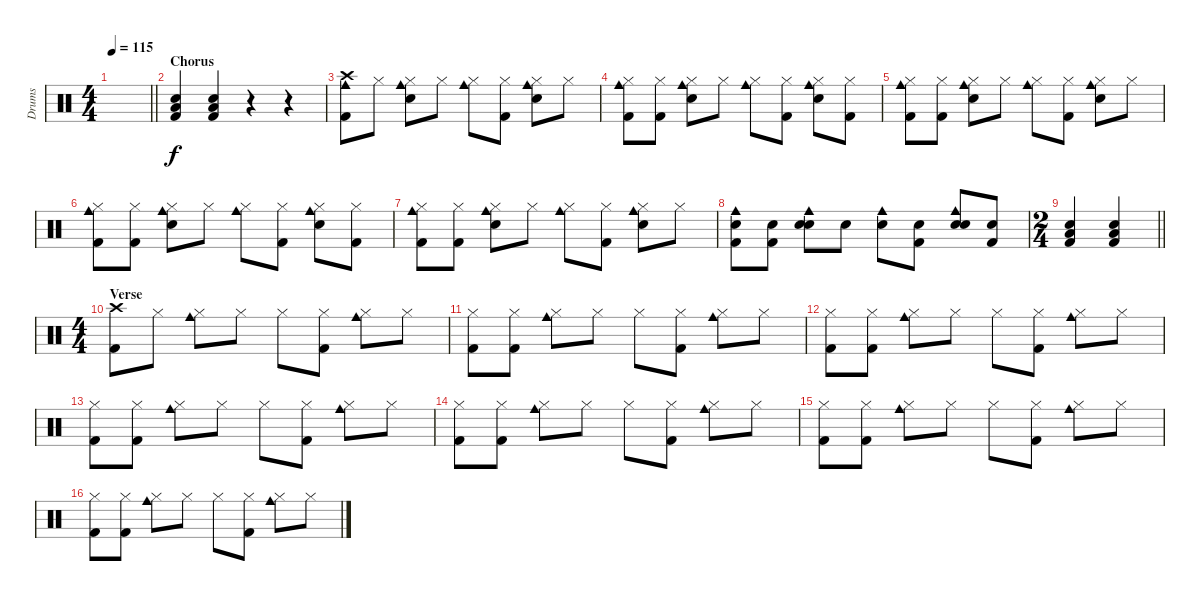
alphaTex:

\track ("Drums" "Drums") {instrument percussion}
\staff {score}
\articulation defaults
\ts (4 4)
\tempo 115
\clef neutral
\barLineRight lightlight
\ks c
|
\section ("" "Chorus")
("Hand Clap (hit)" "Low Floor Tom (hit)" "Kick (hit) 2").4 ("Hand Clap (hit)" "Low Floor Tom (hit)" "Kick (hit) 2").4 r.4 r.4 |
("Crash high (hit)" "Cowbell medium (hit)" "Kick (hit) 2").8 "Hi-Hat (closed)".8 ("Hi-Hat (closed)" "Cowbell medium (hit)" "Snare (hit) 2").8 "Hi-Hat (closed)".8 ("Hi-Hat (closed)" "Cowbell medium (hit)").8 ("Hi-Hat (closed)" "Kick (hit) 2").8 ("Hi-Hat (closed)" "Cowbell medium (hit)" "Snare (hit) 2").8 "Hi-Hat (closed)".8 |
("Hi-Hat (closed)" "Cowbell medium (hit)" "Kick (hit) 2").8 ("Hi-Hat (closed)" "Kick (hit) 2").8 ("Hi-Hat (closed)" "Cowbell medium (hit)" "Snare (hit) 2").8 "Hi-Hat (closed)".8 ("Hi-Hat (closed)" "Cowbell medium (hit)").8 ("Hi-Hat (closed)" "Kick (hit) 2").8 ("Hi-Hat (closed)" "Cowbell medium (hit)" "Snare (hit) 2").8 ("Hi-Hat (closed)" "Kick (hit) 2").8 |
("Hi-Hat (closed)" "Cowbell medium (hit)" "Kick (hit) 2").8 ("Hi-Hat (closed)" "Kick (hit) 2").8 ("Hi-Hat (closed)" "Cowbell medium (hit)" "Snare (hit) 2").8 "Hi-Hat (closed)".8 ("Hi-Hat (closed)" "Cowbell medium (hit)").8 ("Hi-Hat (closed)" "Kick (hit) 2").8 ("Hi-Hat (closed)" "Cowbell medium (hit)" "Snare (hit) 2").8 "Hi-Hat (closed)".8 |
("Hi-Hat (closed)" "Cowbell medium (hit)" "Kick (hit) 2").8 ("Hi-Hat (closed)" "Kick (hit) 2").8 ("Hi-Hat (closed)" "Cowbell medium (hit)" "Snare (hit) 2").8 "Hi-Hat (closed)".8 ("Hi-Hat (closed)" "Cowbell medium (hit)").8 ("Hi-Hat (closed)" "Kick (hit) 2").8 ("Hi-Hat (closed)" "Cowbell medium (hit)" "Snare (hit) 2").8 ("Hi-Hat (closed)" "Kick (hit) 2").8 |
("Hi-Hat (closed)" "Cowbell medium (hit)" "Kick (hit) 2").8 ("Hi-Hat (closed)" "Kick (hit) 2").8 ("Hi-Hat (closed)" "Cowbell medium (hit)" "Snare (hit) 2").8 "Hi-Hat (closed)".8 ("Hi-Hat (closed)" "Cowbell medium (hit)").8 ("Hi-Hat (closed)" "Kick (hit) 2").8 ("Hi-Hat (closed)" "Cowbell medium (hit)" "Snare (hit) 2").8 "Hi-Hat (closed)".8 |
("Hand Clap (hit)" "Cowbell medium (hit)" "Kick (hit) 2").8 ("Hand Clap (hit)" "Kick (hit) 2").8 ("Hand Clap (hit)" "Cowbell medium (hit)" "Snare (hit) 2").8 "Hand Clap (hit)".8 ("Hand Clap (hit)" "Cowbell medium (hit)").8 ("Hand Clap (hit)" "Kick (hit) 2").8 ("Hand Clap (hit)" "Cowbell medium (hit)" "Snare (hit) 2").8 ("Hand Clap (hit)" "Kick (hit) 2").8 |
\ts (2 4)
\barLineRight lightlight
("Hand Clap (hit)" "Low Floor Tom (hit)" "Kick (hit) 2").4 ("Hand Clap (hit)" "Low Floor Tom (hit)" "Kick (hit) 2").4 |
\ts (4 4)
\section ("" "Verse")
("Crash high (hit)" "Kick (hit) 2").8 "Hi-Hat (closed)".8 ("Hi-Hat (closed)" "Cowbell medium (hit)").8 "Hi-Hat (closed)".8 "Hi-Hat (closed)".8 ("Hi-Hat (closed)" "Kick (hit) 2").8 ("Hi-Hat (closed)" "Cowbell medium (hit)").8 "Hi-Hat (closed)".8 |
("Hi-Hat (closed)" "Kick (hit) 2").8 ("Hi-Hat (closed)" "Kick (hit) 2").8 ("Hi-Hat (closed)" "Cowbell medium (hit)").8 "Hi-Hat (closed)".8 "Hi-Hat (closed)".8 ("Hi-Hat (closed)" "Kick (hit) 2").8 ("Hi-Hat (closed)" "Cowbell medium (hit)").8 "Hi-Hat (closed)".8 |
("Hi-Hat (closed)" "Kick (hit) 2").8 ("Hi-Hat (closed)" "Kick (hit) 2").8 ("Hi-Hat (closed)" "Cowbell medium (hit)").8 "Hi-Hat (closed)".8 "Hi-Hat (closed)".8 ("Hi-Hat (closed)" "Kick (hit) 2").8 ("Hi-Hat (closed)" "Cowbell medium (hit)").8 "Hi-Hat (closed)".8 |
("Hi-Hat (closed)" "Kick (hit) 2").8 ("Hi-Hat (closed)" "Kick (hit) 2").8 ("Hi-Hat (closed)" "Cowbell medium (hit)").8 "Hi-Hat (closed)".8 "Hi-Hat (closed)".8 ("Hi-Hat (closed)" "Kick (hit) 2").8 ("Hi-Hat (closed)" "Cowbell medium (hit)").8 "Hi-Hat (closed)".8 |
("Hi-Hat (closed)" "Kick (hit) 2").8 ("Hi-Hat (closed)" "Kick (hit) 2").8 ("Hi-Hat (closed)" "Cowbell medium (hit)").8 "Hi-Hat (closed)".8 "Hi-Hat (closed)".8 ("Hi-Hat (closed)" "Kick (hit) 2").8 ("Hi-Hat (closed)" "Cowbell medium (hit)").8 "Hi-Hat (closed)".8 |
("Hi-Hat (closed)" "Kick (hit) 2").8 ("Hi-Hat (closed)" "Kick (hit) 2").8 ("Hi-Hat (closed)" "Cowbell medium (hit)").8 "Hi-Hat (closed)".8 "Hi-Hat (closed)".8 ("Hi-Hat (closed)" "Kick (hit) 2").8 ("Hi-Hat (closed)" "Cowbell medium (hit)").8 "Hi-Hat (closed)".8 |
("Hi-Hat (closed)" "Kick (hit) 2").8 ("Hi-Hat (closed)" "Kick (hit) 2").8 ("Hi-Hat (closed)" "Cowbell medium (hit)").8 "Hi-Hat (closed)".8 "Hi-Hat (closed)".8 ("Hi-Hat (closed)" "Kick (hit) 2").8 ("Hi-Hat (closed)" "Cowbell medium (hit)").8 "Hi-Hat (closed)".8
